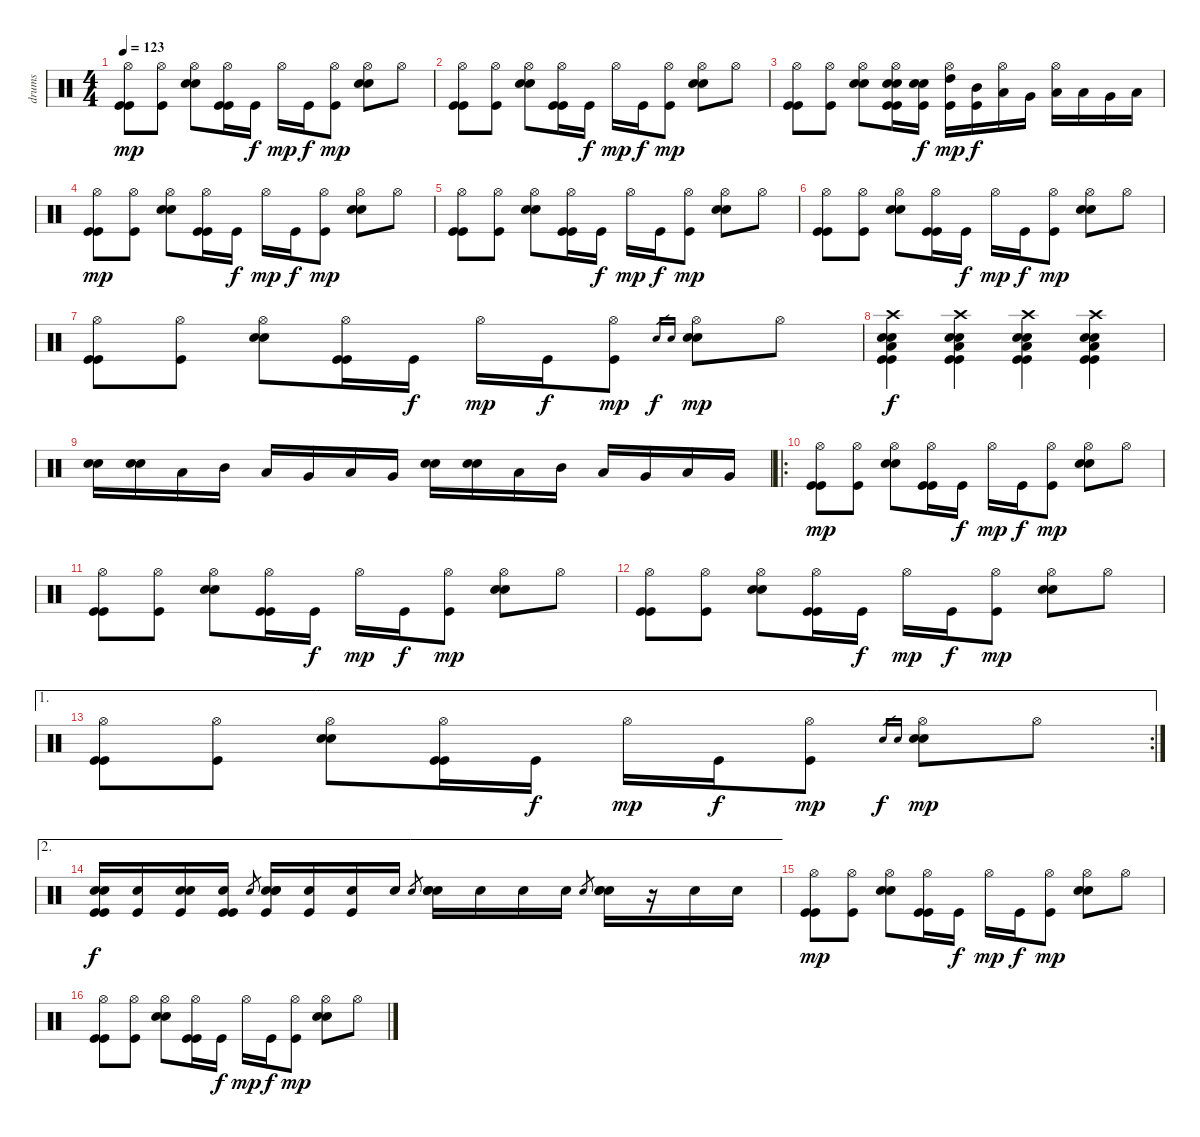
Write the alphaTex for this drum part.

\track ("drums" "drums") {instrument percussion}
\staff {score}
\articulation defaults
\ts (4 4)
\tempo 123
\clef neutral
\ks c
("Hi-Hat (open)" "Kick (hit)" "Kick (hit)").8{dy mp} ("Hi-Hat (open)" "Kick (hit)").8 ("Hi-Hat (open)" "Snare (hit) 2" "Snare (hit) 2").8 ("Hi-Hat (open)" "Kick (hit)" "Kick (hit)").16 "Kick (hit)".16{dy f} "Hi-Hat (open)".16{dy mp} "Kick (hit)".16{dy f} ("Hi-Hat (open)" "Kick (hit)").8{dy mp} ("Hi-Hat (open)" "Snare (hit) 2" "Snare (hit) 2").8 "Hi-Hat (open)".8 |
("Hi-Hat (open)" "Kick (hit)" "Kick (hit)").8 ("Hi-Hat (open)" "Kick (hit)").8 ("Hi-Hat (open)" "Snare (hit) 2" "Snare (hit) 2").8 ("Hi-Hat (open)" "Kick (hit)" "Kick (hit)").16 "Kick (hit)".16{dy f} "Hi-Hat (open)".16{dy mp} "Kick (hit)".16{dy f} ("Hi-Hat (open)" "Kick (hit)").8{dy mp} ("Hi-Hat (open)" "Snare (hit) 2" "Snare (hit) 2").8 "Hi-Hat (open)".8 |
("Hi-Hat (open)" "Kick (hit)" "Kick (hit)").8 ("Hi-Hat (open)" "Kick (hit)").8 ("Hi-Hat (open)" "Snare (hit) 2" "Snare (hit) 2").8 ("Hi-Hat (open)" "Snare (hit) 2" "Snare (hit) 2" "Kick (hit)" "Kick (hit)").16 ("Snare (hit) 2" "Snare (hit) 2" "Kick (hit)").16{dy f} ("Hi-Hat (open)" "High Tom (hit)" "Kick (hit)").16{dy mp} ("Mid Tom (hit)" "Kick (hit)").16{dy f} ("Hi-Hat (open)" "Low Tom (hit)").16 "Very Low Tom (hit)".16 ("Hi-Hat (open)" "Low Floor Tom (hit)").16 "Low Tom (hit)".16 "Very Low Tom (hit)".16 "Low Floor Tom (hit)".16 |
("Hi-Hat (open)" "Kick (hit)" "Kick (hit)").8{dy mp} ("Hi-Hat (open)" "Kick (hit)").8 ("Hi-Hat (open)" "Snare (hit) 2" "Snare (hit) 2").8 ("Hi-Hat (open)" "Kick (hit)" "Kick (hit)").16 "Kick (hit)".16{dy f} "Hi-Hat (open)".16{dy mp} "Kick (hit)".16{dy f} ("Hi-Hat (open)" "Kick (hit)").8{dy mp} ("Hi-Hat (open)" "Snare (hit) 2" "Snare (hit) 2").8 "Hi-Hat (open)".8 |
("Hi-Hat (open)" "Kick (hit)" "Kick (hit)").8 ("Hi-Hat (open)" "Kick (hit)").8 ("Hi-Hat (open)" "Snare (hit) 2" "Snare (hit) 2").8 ("Hi-Hat (open)" "Kick (hit)" "Kick (hit)").16 "Kick (hit)".16{dy f} "Hi-Hat (open)".16{dy mp} "Kick (hit)".16{dy f} ("Hi-Hat (open)" "Kick (hit)").8{dy mp} ("Hi-Hat (open)" "Snare (hit) 2" "Snare (hit) 2").8 "Hi-Hat (open)".8 |
("Hi-Hat (open)" "Kick (hit)" "Kick (hit)").8 ("Hi-Hat (open)" "Kick (hit)").8 ("Hi-Hat (open)" "Snare (hit) 2" "Snare (hit) 2").8 ("Hi-Hat (open)" "Kick (hit)" "Kick (hit)").16 "Kick (hit)".16{dy f} "Hi-Hat (open)".16{dy mp} "Kick (hit)".16{dy f} ("Hi-Hat (open)" "Kick (hit)").8{dy mp} ("Hi-Hat (open)" "Snare (hit) 2" "Snare (hit) 2").8 "Hi-Hat (open)".8 |
("Hi-Hat (open)" "Kick (hit)" "Kick (hit)").8 ("Hi-Hat (open)" "Kick (hit)").8 ("Hi-Hat (open)" "Snare (hit) 2" "Snare (hit) 2").8 ("Hi-Hat (open)" "Kick (hit)" "Kick (hit)").16 "Kick (hit)".16{dy f} "Hi-Hat (open)".16{dy mp} "Kick (hit)".16{dy f} ("Hi-Hat (open)" "Kick (hit)").8{dy mp} "Snare (hit) 2".16{gr dy f} "Snare (hit) 2".16{gr} ("Hi-Hat (open)" "Snare (hit) 2" "Snare (hit) 2").8{dy mp} "Hi-Hat (open)".8 |
("Crash high (hit)" "Snare (hit) 2" "Snare (hit) 2" "Low Floor Tom (hit)" "Kick (hit)" "Kick (hit)").4{dy f} ("Crash high (hit)" "Snare (hit) 2" "Snare (hit) 2" "Low Floor Tom (hit)" "Kick (hit)" "Kick (hit)").4 ("Crash high (hit)" "Snare (hit) 2" "Snare (hit) 2" "Low Floor Tom (hit)" "Kick (hit)" "Kick (hit)").4 ("Crash high (hit)" "Snare (hit) 2" "Snare (hit) 2" "Low Floor Tom (hit)" "Kick (hit)" "Kick (hit)").4 |
("Snare (hit) 2" "Snare (hit) 2").16 ("Snare (hit) 2" "Snare (hit) 2").16 "Low Tom (hit)".16 "Mid Tom (hit)".16 "Low Tom (hit)".16 "Very Low Tom (hit)".16 "Low Floor Tom (hit)".16 "Very Low Tom (hit)".16 ("Snare (hit) 2" "Snare (hit) 2").16 ("Snare (hit) 2" "Snare (hit) 2").16 "Low Tom (hit)".16 "Mid Tom (hit)".16 "Low Tom (hit)".16 "Very Low Tom (hit)".16 "Low Floor Tom (hit)".16 "Very Low Tom (hit)".16 |
\ro
("Hi-Hat (open)" "Kick (hit)" "Kick (hit)").8{dy mp} ("Hi-Hat (open)" "Kick (hit)").8 ("Hi-Hat (open)" "Snare (hit) 2" "Snare (hit) 2").8 ("Hi-Hat (open)" "Kick (hit)" "Kick (hit)").16 "Kick (hit)".16{dy f} "Hi-Hat (open)".16{dy mp} "Kick (hit)".16{dy f} ("Hi-Hat (open)" "Kick (hit)").8{dy mp} ("Hi-Hat (open)" "Snare (hit) 2" "Snare (hit) 2").8 "Hi-Hat (open)".8 |
("Hi-Hat (open)" "Kick (hit)" "Kick (hit)").8 ("Hi-Hat (open)" "Kick (hit)").8 ("Hi-Hat (open)" "Snare (hit) 2" "Snare (hit) 2").8 ("Hi-Hat (open)" "Kick (hit)" "Kick (hit)").16 "Kick (hit)".16{dy f} "Hi-Hat (open)".16{dy mp} "Kick (hit)".16{dy f} ("Hi-Hat (open)" "Kick (hit)").8{dy mp} ("Hi-Hat (open)" "Snare (hit) 2" "Snare (hit) 2").8 "Hi-Hat (open)".8 |
("Hi-Hat (open)" "Kick (hit)" "Kick (hit)").8 ("Hi-Hat (open)" "Kick (hit)").8 ("Hi-Hat (open)" "Snare (hit) 2" "Snare (hit) 2").8 ("Hi-Hat (open)" "Kick (hit)" "Kick (hit)").16 "Kick (hit)".16{dy f} "Hi-Hat (open)".16{dy mp} "Kick (hit)".16{dy f} ("Hi-Hat (open)" "Kick (hit)").8{dy mp} ("Hi-Hat (open)" "Snare (hit) 2" "Snare (hit) 2").8 "Hi-Hat (open)".8 |
\ae 1
\rc 2
("Hi-Hat (open)" "Kick (hit)" "Kick (hit)").8 ("Hi-Hat (open)" "Kick (hit)").8 ("Hi-Hat (open)" "Snare (hit) 2" "Snare (hit) 2").8 ("Hi-Hat (open)" "Kick (hit)" "Kick (hit)").16 "Kick (hit)".16{dy f} "Hi-Hat (open)".16{dy mp} "Kick (hit)".16{dy f} ("Hi-Hat (open)" "Kick (hit)").8{dy mp} "Snare (hit) 2".16{gr dy f} "Snare (hit) 2".16{gr} ("Hi-Hat (open)" "Snare (hit) 2" "Snare (hit) 2").8{dy mp} "Hi-Hat (open)".8 |
\ae 2
("Snare (hit) 2" "Snare (hit) 2" "Kick (hit)" "Kick (hit)").16{dy f} ("Snare (hit) 2" "Kick (hit)").16 ("Snare (hit) 2" "Snare (hit) 2" "Kick (hit)").16 ("Snare (hit) 2" "Kick (hit)" "Kick (hit)").16 "Snare (hit) 2".8{gr} ("Snare (hit) 2" "Snare (hit) 2" "Snare (hit) 2" "Kick (hit)").16 ("Snare (hit) 2" "Kick (hit)").16 ("Snare (hit) 2" "Kick (hit)").16 "Snare (hit) 2".16 "Snare (hit) 2".8{gr} ("Snare (hit) 2" "Snare (hit) 2" "Snare (hit) 2").16 "Snare (hit) 2".16 "Snare (hit) 2".16 "Snare (hit) 2".16 "Snare (hit) 2".8{gr} ("Snare (hit) 2" "Snare (hit) 2" "Snare (hit) 2").16 r.16 "Snare (hit) 2".16 "Snare (hit) 2".16 |
("Hi-Hat (open)" "Kick (hit)" "Kick (hit)").8{dy mp} ("Hi-Hat (open)" "Kick (hit)").8 ("Hi-Hat (open)" "Snare (hit) 2" "Snare (hit) 2").8 ("Hi-Hat (open)" "Kick (hit)" "Kick (hit)").16 "Kick (hit)".16{dy f} "Hi-Hat (open)".16{dy mp} "Kick (hit)".16{dy f} ("Hi-Hat (open)" "Kick (hit)").8{dy mp} ("Hi-Hat (open)" "Snare (hit) 2" "Snare (hit) 2").8 "Hi-Hat (open)".8 |
("Hi-Hat (open)" "Kick (hit)" "Kick (hit)").8 ("Hi-Hat (open)" "Kick (hit)").8 ("Hi-Hat (open)" "Snare (hit) 2" "Snare (hit) 2").8 ("Hi-Hat (open)" "Kick (hit)" "Kick (hit)").16 "Kick (hit)".16{dy f} "Hi-Hat (open)".16{dy mp} "Kick (hit)".16{dy f} ("Hi-Hat (open)" "Kick (hit)").8{dy mp} ("Hi-Hat (open)" "Snare (hit) 2" "Snare (hit) 2").8 "Hi-Hat (open)".8
